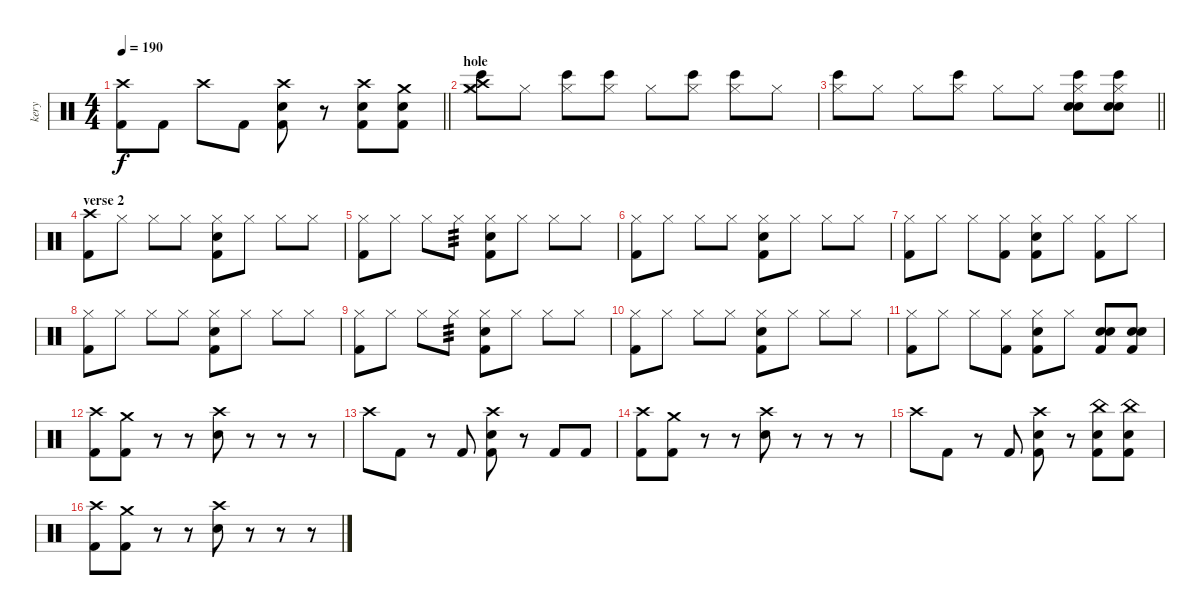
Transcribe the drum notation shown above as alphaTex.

\track ("kery" "kery") {instrument percussion}
\staff {score}
\articulation defaults
\ts (4 4)
\tempo 190
\clef neutral
\barLineRight lightlight
\ks c
("Crash high (hit)" "Kick (hit) 2").8{dy f} "Kick (hit) 2".8 "Crash high (hit)".8 "Kick (hit) 2".8 ("Crash high (hit)" "Electric Snare (hit)" "Kick (hit) 2").8 r.8 ("Crash high (hit)" "Electric Snare (hit)" "Kick (hit) 2").8 ("Crash medium (hit)" "Electric Snare (hit)" "Kick (hit) 2").8 |
\section ("" "hole")
("Crash high (hit)" "Crash medium (hit)" "Bongo High (hit)" "Hi-Hat (closed)").8 "Hi-Hat (closed)".8 ("Bongo High (hit)" "Hi-Hat (closed)").8 ("Bongo High (hit)" "Hi-Hat (closed)").8 "Hi-Hat (closed)".8 ("Bongo High (hit)" "Hi-Hat (closed)").8 ("Bongo High (hit)" "Hi-Hat (closed)").8 "Hi-Hat (closed)".8 |
\barLineRight lightlight
("Bongo High (hit)" "Hi-Hat (closed)").8 "Hi-Hat (closed)".8 "Hi-Hat (closed)".8 ("Bongo High (hit)" "Hi-Hat (closed)").8 "Hi-Hat (closed)".8 "Hi-Hat (closed)".8 ("Hand Clap (hit)" "Electric Snare (hit)" "Bongo High (hit)" "Hi-Hat (closed)").8 ("Hand Clap (hit)" "Electric Snare (hit)" "Bongo High (hit)" "Hi-Hat (closed)").8 |
\section ("" "verse 2")
("Crash high (hit)" "Kick (hit) 2").8 "Hi-Hat (closed)".8 "Hi-Hat (closed)".8 "Hi-Hat (closed)".8 ("Hi-Hat (closed)" "Electric Snare (hit)" "Kick (hit) 2").8 "Hi-Hat (closed)".8 "Hi-Hat (closed)".8 "Hi-Hat (closed)".8 |
("Hi-Hat (closed)" "Kick (hit) 2").8 "Hi-Hat (closed)".8 "Hi-Hat (closed)".8 "Hi-Hat (closed)".8{tp 3} ("Hi-Hat (closed)" "Electric Snare (hit)" "Kick (hit) 2").8 "Hi-Hat (closed)".8 "Hi-Hat (closed)".8 "Hi-Hat (closed)".8 |
("Hi-Hat (closed)" "Kick (hit) 2").8 "Hi-Hat (closed)".8 "Hi-Hat (closed)".8 "Hi-Hat (closed)".8 ("Hi-Hat (closed)" "Electric Snare (hit)" "Kick (hit) 2").8 "Hi-Hat (closed)".8 "Hi-Hat (closed)".8 "Hi-Hat (closed)".8 |
("Hi-Hat (closed)" "Kick (hit) 2").8 "Hi-Hat (closed)".8 "Hi-Hat (closed)".8 ("Hi-Hat (closed)" "Kick (hit) 2").8 ("Hi-Hat (closed)" "Electric Snare (hit)" "Kick (hit) 2").8 "Hi-Hat (closed)".8 ("Hi-Hat (closed)" "Kick (hit) 2").8 "Hi-Hat (closed)".8 |
("Hi-Hat (closed)" "Kick (hit) 2").8 "Hi-Hat (closed)".8 "Hi-Hat (closed)".8 "Hi-Hat (closed)".8 ("Hi-Hat (closed)" "Electric Snare (hit)" "Kick (hit) 2").8 "Hi-Hat (closed)".8 "Hi-Hat (closed)".8 "Hi-Hat (closed)".8 |
("Hi-Hat (closed)" "Kick (hit) 2").8 "Hi-Hat (closed)".8 "Hi-Hat (closed)".8 "Hi-Hat (closed)".8{tp 3} ("Hi-Hat (closed)" "Electric Snare (hit)" "Kick (hit) 2").8 "Hi-Hat (closed)".8 "Hi-Hat (closed)".8 "Hi-Hat (closed)".8 |
("Hi-Hat (closed)" "Kick (hit) 2").8 "Hi-Hat (closed)".8 "Hi-Hat (closed)".8 "Hi-Hat (closed)".8 ("Hi-Hat (closed)" "Electric Snare (hit)" "Kick (hit) 2").8 "Hi-Hat (closed)".8 "Hi-Hat (closed)".8 "Hi-Hat (closed)".8 |
("Hi-Hat (closed)" "Kick (hit) 2").8 "Hi-Hat (closed)".8 "Hi-Hat (closed)".8 ("Hi-Hat (closed)" "Kick (hit) 2").8 ("Hi-Hat (closed)" "Electric Snare (hit)" "Kick (hit) 2").8 "Hi-Hat (closed)".8 ("Hand Clap (hit)" "Electric Snare (hit)" "Kick (hit) 2").8 ("Hand Clap (hit)" "Electric Snare (hit)" "Kick (hit) 2").8 |
("Kick (hit) 2" "Crash high (hit)").8 ("Kick (hit) 2" "Crash medium (hit)").8 r.8 r.8 ("Electric Snare (hit)" "Crash high (hit)").8 r.8 r.8 r.8 |
"Crash high (hit)".8 "Kick (hit) 2".8 r.8 "Kick (hit) 2".8 ("Kick (hit) 2" "Electric Snare (hit)" "Crash high (hit)").8 r.8 "Kick (hit) 2".8 "Kick (hit) 2".8 |
("Kick (hit) 2" "Crash high (hit)").8 ("Kick (hit) 2" "Crash medium (hit)").8 r.8 r.8 ("Electric Snare (hit)" "Crash high (hit)").8 r.8 r.8 r.8 |
"Crash high (hit)".8 "Kick (hit) 2".8 r.8 "Kick (hit) 2".8 ("Kick (hit) 2" "Electric Snare (hit)" "Crash high (hit)").8 r.8 ("Kick (hit) 2" "Electric Snare (hit)" "China (hit)").8 ("Kick (hit) 2" "Electric Snare (hit)" "China (hit)").8 |
("Kick (hit) 2" "Crash high (hit)").8 ("Kick (hit) 2" "Crash medium (hit)").8 r.8 r.8 ("Electric Snare (hit)" "Crash high (hit)").8 r.8 r.8 r.8
